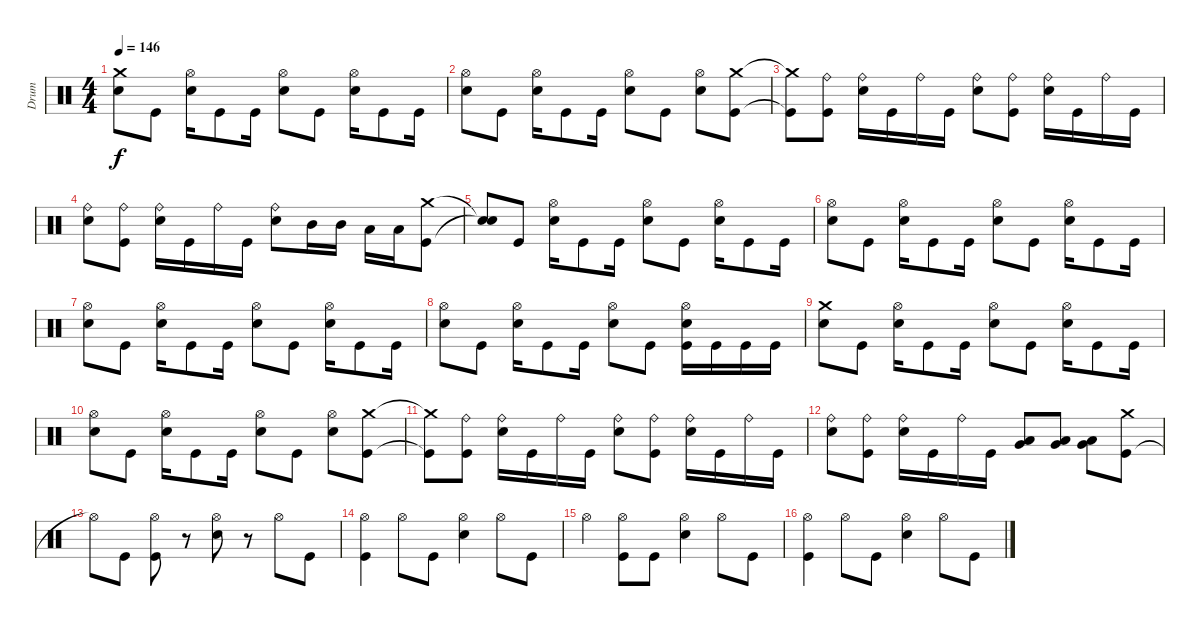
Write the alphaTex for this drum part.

\track ("Drum" "Drum") {instrument percussion}
\staff {score}
\articulation defaults
\ts (4 4)
\tempo 146
\clef neutral
\ks c
("Electric Snare (hit)" "Crash medium (hit)").8{dy f} "Kick (hit)".8 ("Electric Snare (hit)" "Hi-Hat (open)").16 "Kick (hit)".8 "Kick (hit)".16 ("Electric Snare (hit)" "Hi-Hat (open)").8 "Kick (hit)".8 ("Electric Snare (hit)" "Hi-Hat (open)").16 "Kick (hit)".8 "Kick (hit)".16 |
("Electric Snare (hit)" "Hi-Hat (open)").8 "Kick (hit)".8 ("Electric Snare (hit)" "Hi-Hat (open)").16 "Kick (hit)".8 "Kick (hit)".16 ("Electric Snare (hit)" "Hi-Hat (open)").8 "Kick (hit)".8 ("Electric Snare (hit)" "Hi-Hat (open)").8 ("Kick (hit)" "Crash medium (hit)").8 |
("Kick (hit)"{t} "Crash medium (hit)"{t}).8 ("Kick (hit)" "Ride (bell)").8 ("Electric Snare (hit)" "Ride (bell)").16 "Kick (hit)".16 "Ride (bell)".16 "Kick (hit)".16 ("Electric Snare (hit)" "Ride (bell)").8 ("Kick (hit)" "Ride (bell)").8 ("Electric Snare (hit)" "Ride (bell)").16 "Kick (hit)".16 "Ride (bell)".16 "Kick (hit)".16 |
("Electric Snare (hit)" "Ride (bell)").8 ("Kick (hit)" "Ride (bell)").8 ("Electric Snare (hit)" "Ride (bell)").16 "Kick (hit)".16 "Ride (bell)".16 "Kick (hit)".16 ("Electric Snare (hit)" "Ride (bell)").8 "Mid Tom (hit)".16 "Mid Tom (hit)".16 "Low Tom (hit)".16 "Low Tom (hit)".16 ("Kick (hit)" "Crash medium (hit)").8 |
("Snare (hit)"{t} "Snare (hit)"{t}).8 "Kick (hit)".8 ("Electric Snare (hit)" "Hi-Hat (open)").16 "Kick (hit)".8 "Kick (hit)".16 ("Electric Snare (hit)" "Hi-Hat (open)").8 "Kick (hit)".8 ("Electric Snare (hit)" "Hi-Hat (open)").16 "Kick (hit)".8 "Kick (hit)".16 |
("Electric Snare (hit)" "Hi-Hat (open)").8 "Kick (hit)".8 ("Electric Snare (hit)" "Hi-Hat (open)").16 "Kick (hit)".8 "Kick (hit)".16 ("Electric Snare (hit)" "Hi-Hat (open)").8 "Kick (hit)".8 ("Electric Snare (hit)" "Hi-Hat (open)").16 "Kick (hit)".8 "Kick (hit)".16 |
("Electric Snare (hit)" "Hi-Hat (open)").8 "Kick (hit)".8 ("Electric Snare (hit)" "Hi-Hat (open)").16 "Kick (hit)".8 "Kick (hit)".16 ("Electric Snare (hit)" "Hi-Hat (open)").8 "Kick (hit)".8 ("Electric Snare (hit)" "Hi-Hat (open)").16 "Kick (hit)".8 "Kick (hit)".16 |
("Electric Snare (hit)" "Hi-Hat (open)").8 "Kick (hit)".8 ("Electric Snare (hit)" "Hi-Hat (open)").16 "Kick (hit)".8 "Kick (hit)".16 ("Electric Snare (hit)" "Hi-Hat (open)").8 "Kick (hit)".8 ("Kick (hit)" "Electric Snare (hit)" "Hi-Hat (open)").16 "Kick (hit)".16 "Kick (hit)".16 "Kick (hit)".16 |
("Electric Snare (hit)" "Crash medium (hit)").8 "Kick (hit)".8 ("Electric Snare (hit)" "Hi-Hat (open)").16 "Kick (hit)".8 "Kick (hit)".16 ("Electric Snare (hit)" "Hi-Hat (open)").8 "Kick (hit)".8 ("Electric Snare (hit)" "Hi-Hat (open)").16 "Kick (hit)".8 "Kick (hit)".16 |
("Electric Snare (hit)" "Hi-Hat (open)").8 "Kick (hit)".8 ("Electric Snare (hit)" "Hi-Hat (open)").16 "Kick (hit)".8 "Kick (hit)".16 ("Electric Snare (hit)" "Hi-Hat (open)").8 "Kick (hit)".8 ("Electric Snare (hit)" "Hi-Hat (open)").8 ("Kick (hit)" "Crash medium (hit)").8 |
("Kick (hit)"{t} "Crash medium (hit)"{t}).8 ("Kick (hit)" "Ride (bell)").8 ("Electric Snare (hit)" "Ride (bell)").16 "Kick (hit)".16 "Ride (bell)".16 "Kick (hit)".16 ("Electric Snare (hit)" "Ride (bell)").8 ("Kick (hit)" "Ride (bell)").8 ("Electric Snare (hit)" "Ride (bell)").16 "Kick (hit)".16 "Ride (bell)".16 "Kick (hit)".16 |
("Electric Snare (hit)" "Ride (bell)").8 ("Kick (hit)" "Ride (bell)").8 ("Electric Snare (hit)" "Ride (bell)").16 "Kick (hit)".16 "Ride (bell)".16 "Kick (hit)".16 ("Low Tom (hit)" "Very Low Tom (hit)").8 ("Low Tom (hit)" "Very Low Tom (hit)").8 ("Low Tom (hit)" "Very Low Tom (hit)").8 ("Kick (hit)" "Crash medium (hit)").8 |
"Hi-Hat (open)"{t}.8 "Kick (hit)".8 ("Kick (hit)" "Hi-Hat (open)").8 r.8 ("Electric Snare (hit)" "Hi-Hat (open)").8 r.8 "Hi-Hat (open)".8 "Kick (hit)".8 |
("Kick (hit)" "Hi-Hat (open)").4 "Hi-Hat (open)".8 "Kick (hit)".8 ("Electric Snare (hit)" "Hi-Hat (open)").4 "Hi-Hat (open)".8 "Kick (hit)".8 |
"Hi-Hat (open)".4 ("Kick (hit)" "Hi-Hat (open)").8 "Kick (hit)".8 ("Electric Snare (hit)" "Hi-Hat (open)").4 "Hi-Hat (open)".8 "Kick (hit)".8 |
("Kick (hit)" "Hi-Hat (open)").4 "Hi-Hat (open)".8 "Kick (hit)".8 ("Electric Snare (hit)" "Hi-Hat (open)").4 "Hi-Hat (open)".8 "Kick (hit)".8
